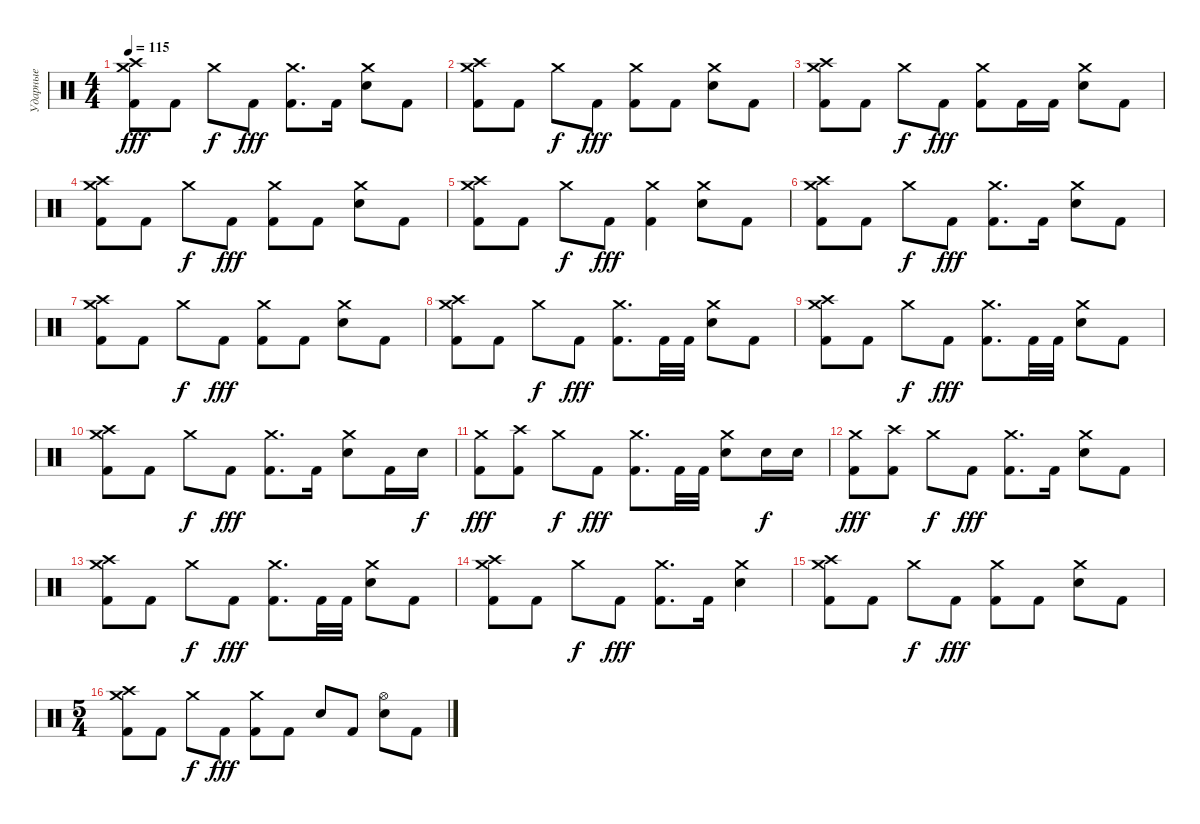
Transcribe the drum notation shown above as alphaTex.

\track ("Ударные" "Ударные") {instrument percussion}
\staff {score}
\articulation defaults
\ts (4 4)
\tempo 115
\clef neutral
\ks c
("Crash high (hit)" "Crash medium (hit)" "Kick (hit) 2").8{dy fff} "Kick (hit) 2".8 "Crash medium (hit)".8{dy f} "Kick (hit) 2".8{dy fff} ("Crash medium (hit)" "Kick (hit) 2").8{d} "Kick (hit) 2".16 ("Crash medium (hit)" "Electric Snare (hit)").8 "Kick (hit) 2".8 |
("Crash high (hit)" "Crash medium (hit)" "Kick (hit) 2").8 "Kick (hit) 2".8 "Crash medium (hit)".8{dy f} "Kick (hit) 2".8{dy fff} ("Crash medium (hit)" "Kick (hit) 2").8 "Kick (hit) 2".8 ("Crash medium (hit)" "Electric Snare (hit)").8 "Kick (hit) 2".8 |
("Crash high (hit)" "Crash medium (hit)" "Kick (hit) 2").8 "Kick (hit) 2".8 "Crash medium (hit)".8{dy f} "Kick (hit) 2".8{dy fff} ("Crash medium (hit)" "Kick (hit) 2").8 "Kick (hit) 2".16 "Kick (hit) 2".16 ("Crash medium (hit)" "Electric Snare (hit)").8 "Kick (hit) 2".8 |
("Crash high (hit)" "Crash medium (hit)" "Kick (hit) 2").8 "Kick (hit) 2".8 "Crash medium (hit)".8{dy f} "Kick (hit) 2".8{dy fff} ("Crash medium (hit)" "Kick (hit) 2").8 "Kick (hit) 2".8 ("Crash medium (hit)" "Electric Snare (hit)").8 "Kick (hit) 2".8 |
("Crash high (hit)" "Crash medium (hit)" "Kick (hit) 2").8 "Kick (hit) 2".8 "Crash medium (hit)".8{dy f} "Kick (hit) 2".8{dy fff} ("Crash medium (hit)" "Kick (hit) 2").4 ("Crash medium (hit)" "Electric Snare (hit)").8 "Kick (hit) 2".8 |
("Crash high (hit)" "Crash medium (hit)" "Kick (hit) 2").8 "Kick (hit) 2".8 "Crash medium (hit)".8{dy f} "Kick (hit) 2".8{dy fff} ("Crash medium (hit)" "Kick (hit) 2").8{d} "Kick (hit) 2".16 ("Crash medium (hit)" "Electric Snare (hit)").8 "Kick (hit) 2".8 |
("Crash high (hit)" "Crash medium (hit)" "Kick (hit) 2").8 "Kick (hit) 2".8 "Crash medium (hit)".8{dy f} "Kick (hit) 2".8{dy fff} ("Crash medium (hit)" "Kick (hit) 2").8 "Kick (hit) 2".8 ("Crash medium (hit)" "Electric Snare (hit)").8 "Kick (hit) 2".8 |
("Crash high (hit)" "Crash medium (hit)" "Kick (hit) 2").8 "Kick (hit) 2".8 "Crash medium (hit)".8{dy f} "Kick (hit) 2".8{dy fff} ("Crash medium (hit)" "Kick (hit) 2").8{d} "Kick (hit) 2".32 "Kick (hit) 2".32 ("Crash medium (hit)" "Electric Snare (hit)").8 "Kick (hit) 2".8 |
("Crash high (hit)" "Crash medium (hit)" "Kick (hit) 2").8 "Kick (hit) 2".8 "Crash medium (hit)".8{dy f} "Kick (hit) 2".8{dy fff} ("Crash medium (hit)" "Kick (hit) 2").8{d} "Kick (hit) 2".32 "Kick (hit) 2".32 ("Crash medium (hit)" "Electric Snare (hit)").8 "Kick (hit) 2".8 |
("Crash high (hit)" "Crash medium (hit)" "Kick (hit) 2").8 "Kick (hit) 2".8 "Crash medium (hit)".8{dy f} "Kick (hit) 2".8{dy fff} ("Crash medium (hit)" "Kick (hit) 2").8{d} "Kick (hit) 2".16 ("Crash medium (hit)" "Electric Snare (hit)").8 "Kick (hit) 2".16 "Electric Snare (hit)".16{dy f} |
("Crash medium (hit)" "Kick (hit) 2").8{dy fff} ("Crash high (hit)" "Kick (hit) 2").8 "Crash medium (hit)".8{dy f} "Kick (hit) 2".8{dy fff} ("Crash medium (hit)" "Kick (hit) 2").8{d} "Kick (hit) 2".32 "Kick (hit) 2".32 ("Crash medium (hit)" "Electric Snare (hit)").8 "Electric Snare (hit)".16{dy f} "Electric Snare (hit)".16 |
("Crash medium (hit)" "Kick (hit) 2").8{dy fff} ("Crash high (hit)" "Kick (hit) 2").8 "Crash medium (hit)".8{dy f} "Kick (hit) 2".8{dy fff} ("Crash medium (hit)" "Kick (hit) 2").8{d} "Kick (hit) 2".16 ("Crash medium (hit)" "Electric Snare (hit)").8 "Kick (hit) 2".8 |
("Crash high (hit)" "Crash medium (hit)" "Kick (hit) 2").8 "Kick (hit) 2".8 "Crash medium (hit)".8{dy f} "Kick (hit) 2".8{dy fff} ("Crash medium (hit)" "Kick (hit) 2").8{d} "Kick (hit) 2".32 "Kick (hit) 2".32 ("Crash medium (hit)" "Electric Snare (hit)").8 "Kick (hit) 2".8 |
("Crash high (hit)" "Crash medium (hit)" "Kick (hit) 2").8 "Kick (hit) 2".8 "Crash medium (hit)".8{dy f} "Kick (hit) 2".8{dy fff} ("Crash medium (hit)" "Kick (hit) 2").8{d} "Kick (hit) 2".16 ("Crash medium (hit)" "Electric Snare (hit)").4 |
("Crash high (hit)" "Crash medium (hit)" "Kick (hit) 2").8 "Kick (hit) 2".8 "Crash medium (hit)".8{dy f} "Kick (hit) 2".8{dy fff} ("Crash medium (hit)" "Kick (hit) 2").8 "Kick (hit) 2".8 ("Crash medium (hit)" "Electric Snare (hit)").8 "Kick (hit) 2".8 |
\ts (5 4)
("Crash high (hit)" "Crash medium (hit)" "Kick (hit) 2").8 "Kick (hit) 2".8 "Crash medium (hit)".8{dy f} "Kick (hit) 2".8{dy fff} ("Crash medium (hit)" "Kick (hit) 2").8 "Kick (hit) 2".8 "Electric Snare (hit)".8 "Kick (hit) 2".8 ("Hi-Hat (open)" "Electric Snare (hit)").8 "Kick (hit) 2".8
